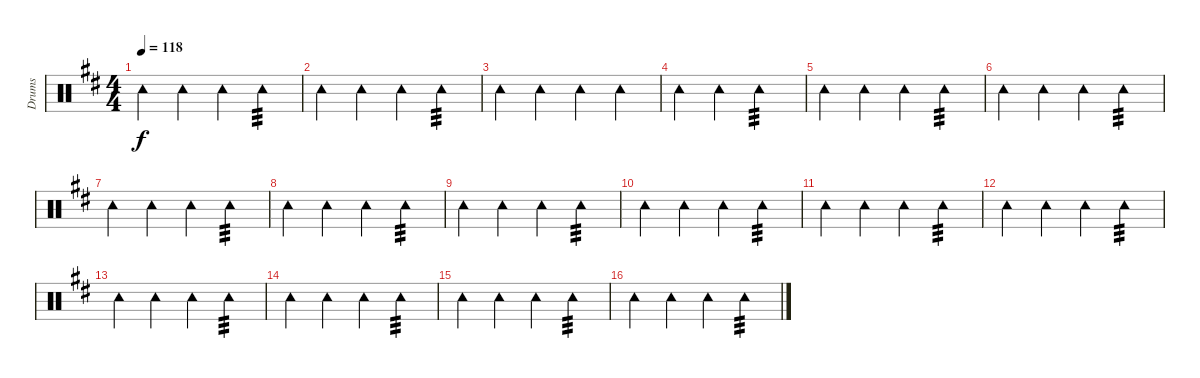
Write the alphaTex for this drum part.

\track ("Drums" "Drums") {instrument percussion}
\staff {score}
\articulation defaults
\ts (4 4)
\tempo 118
\clef neutral
\ks d "Tambourine (hit)".4{dy f} "Tambourine (hit)".4 "Tambourine (hit)".4 "Tambourine (hit)".4{tp 3}
|
"Tambourine (hit)".4 "Tambourine (hit)".4 "Tambourine (hit)".4 "Tambourine (hit)".4{tp 3} |
"Tambourine (hit)".4 "Tambourine (hit)".4 "Tambourine (hit)".4 "Tambourine (hit)".4 |
"Tambourine (hit)".4 "Tambourine (hit)".4 "Tambourine (hit)".2{tp 3} |
"Tambourine (hit)".4 "Tambourine (hit)".4 "Tambourine (hit)".4 "Tambourine (hit)".4{tp 3} |
"Tambourine (hit)".4 "Tambourine (hit)".4 "Tambourine (hit)".4 "Tambourine (hit)".4{tp 3} |
"Tambourine (hit)".4 "Tambourine (hit)".4 "Tambourine (hit)".4 "Tambourine (hit)".4{tp 3} |
"Tambourine (hit)".4 "Tambourine (hit)".4 "Tambourine (hit)".4 "Tambourine (hit)".4{tp 3} |
"Tambourine (hit)".4 "Tambourine (hit)".4 "Tambourine (hit)".4 "Tambourine (hit)".4{tp 3} |
"Tambourine (hit)".4 "Tambourine (hit)".4 "Tambourine (hit)".4 "Tambourine (hit)".4{tp 3} |
"Tambourine (hit)".4 "Tambourine (hit)".4 "Tambourine (hit)".4 "Tambourine (hit)".4{tp 3} |
"Tambourine (hit)".4 "Tambourine (hit)".4 "Tambourine (hit)".4 "Tambourine (hit)".4{tp 3} |
"Tambourine (hit)".4 "Tambourine (hit)".4 "Tambourine (hit)".4 "Tambourine (hit)".4{tp 3} |
"Tambourine (hit)".4 "Tambourine (hit)".4 "Tambourine (hit)".4 "Tambourine (hit)".4{tp 3} |
"Tambourine (hit)".4 "Tambourine (hit)".4 "Tambourine (hit)".4 "Tambourine (hit)".4{tp 3} |
"Tambourine (hit)".4 "Tambourine (hit)".4 "Tambourine (hit)".4 "Tambourine (hit)".4{tp 3}
